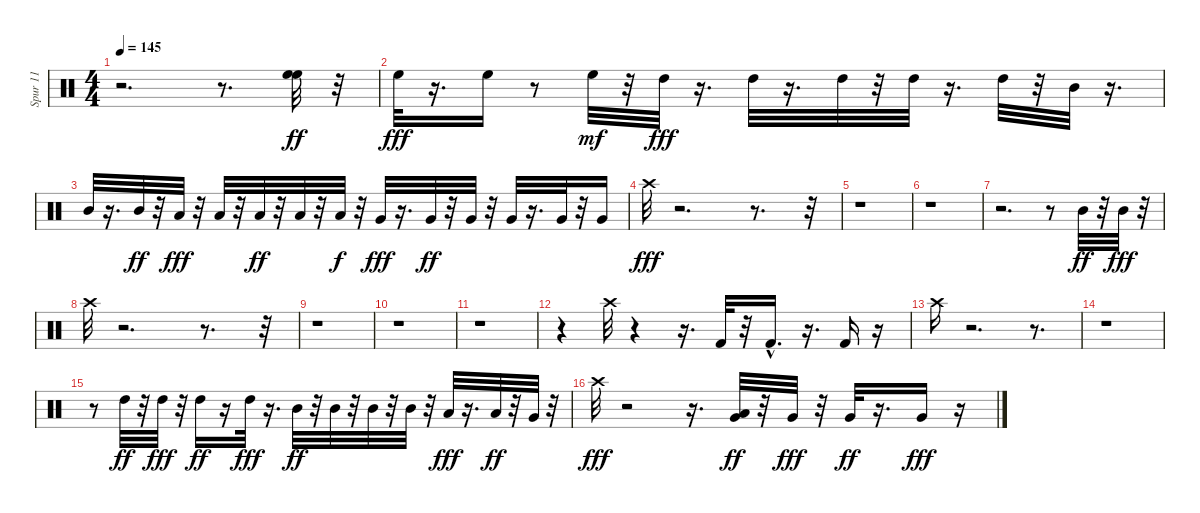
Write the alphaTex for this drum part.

\track ("Spur 11" "Spur 11") {instrument percussion}
\staff {score}
\articulation defaults
\ts (4 4)
\tempo 145
\clef neutral
\ks c
r.2{d dy ff} r.8{d} ("High Floor Tom (hit)" "High Floor Tom (hit)").32 r.32 |
"High Floor Tom (hit)".32{dy fff} r.16{d} "High Floor Tom (hit)".16 r.8 "High Floor Tom (hit)".32{dy mf} r.32 "High Tom (hit)".32{dy fff} r.16{d} "High Tom (hit)".32 r.16{d} "High Tom (hit)".32 r.32 "High Tom (hit)".32 r.16{d} "High Tom (hit)".32 r.32 "Mid Tom (hit)".32 r.16{d} |
"Mid Tom (hit)".32 r.16{d} "Mid Tom (hit)".32{dy ff} r.32 "Low Tom (hit)".32{dy fff} r.32 "Low Tom (hit)".32 r.32 "Low Tom (hit)".32{dy ff} r.32 "Low Tom (hit)".32 r.32 "Low Tom (hit)".32{dy f} r.32 "Very Low Tom (hit)".32{dy fff} r.16{d} "Very Low Tom (hit)".32{dy ff} r.32 "Very Low Tom (hit)".32 r.32 "Very Low Tom (hit)".32 r.16{d} "Very Low Tom (hit)".32 r.32 "Very Low Tom (hit)".16 |
"Crash high (hit)".32{dy fff} r.2{d} r.8{d} r.32 |
r.1 |
r.1 |
r.2{d} r.8 "Mid Tom (hit)".32{dy ff} r.32 "Mid Tom (hit)".32{dy fff} r.32 |
"Crash high (hit)".32 r.2{d} r.8{d} r.32 |
r.1 |
r.1 |
r.1 |
r.4 "Crash high (hit)".32 r.4 r.16{d} "Kick (hit) 2".32 r.32 "Kick (hit) 2"{hac}.16{d} r.16{d} "Kick (hit) 2".16 r.16 |
"Crash high (hit)".16 r.2{d} r.8{d} |
r.1 |
r.8 "High Tom (hit)".32{dy ff} r.32 "High Tom (hit)".32{dy fff} r.32 "High Tom (hit)".16{dy ff} r.16 "High Tom (hit)".32{dy fff} r.16{d} "Mid Tom (hit)".32{dy ff} r.32 "Mid Tom (hit)".32 r.32 "Mid Tom (hit)".32 r.32 "Mid Tom (hit)".32 r.32 "Low Tom (hit)".32{dy fff} r.16{d} "Low Tom (hit)".32{dy ff} r.32 "Very Low Tom (hit)".32 r.32 |
"Crash high (hit)".32{dy fff} r.2 r.16{d} ("Very Low Tom (hit)" "Low Tom (hit)").32{dy ff} r.32 "Very Low Tom (hit)".32{dy fff} r.32 "Very Low Tom (hit)".32{dy ff} r.16{d} "Very Low Tom (hit)".16{dy fff} r.16
